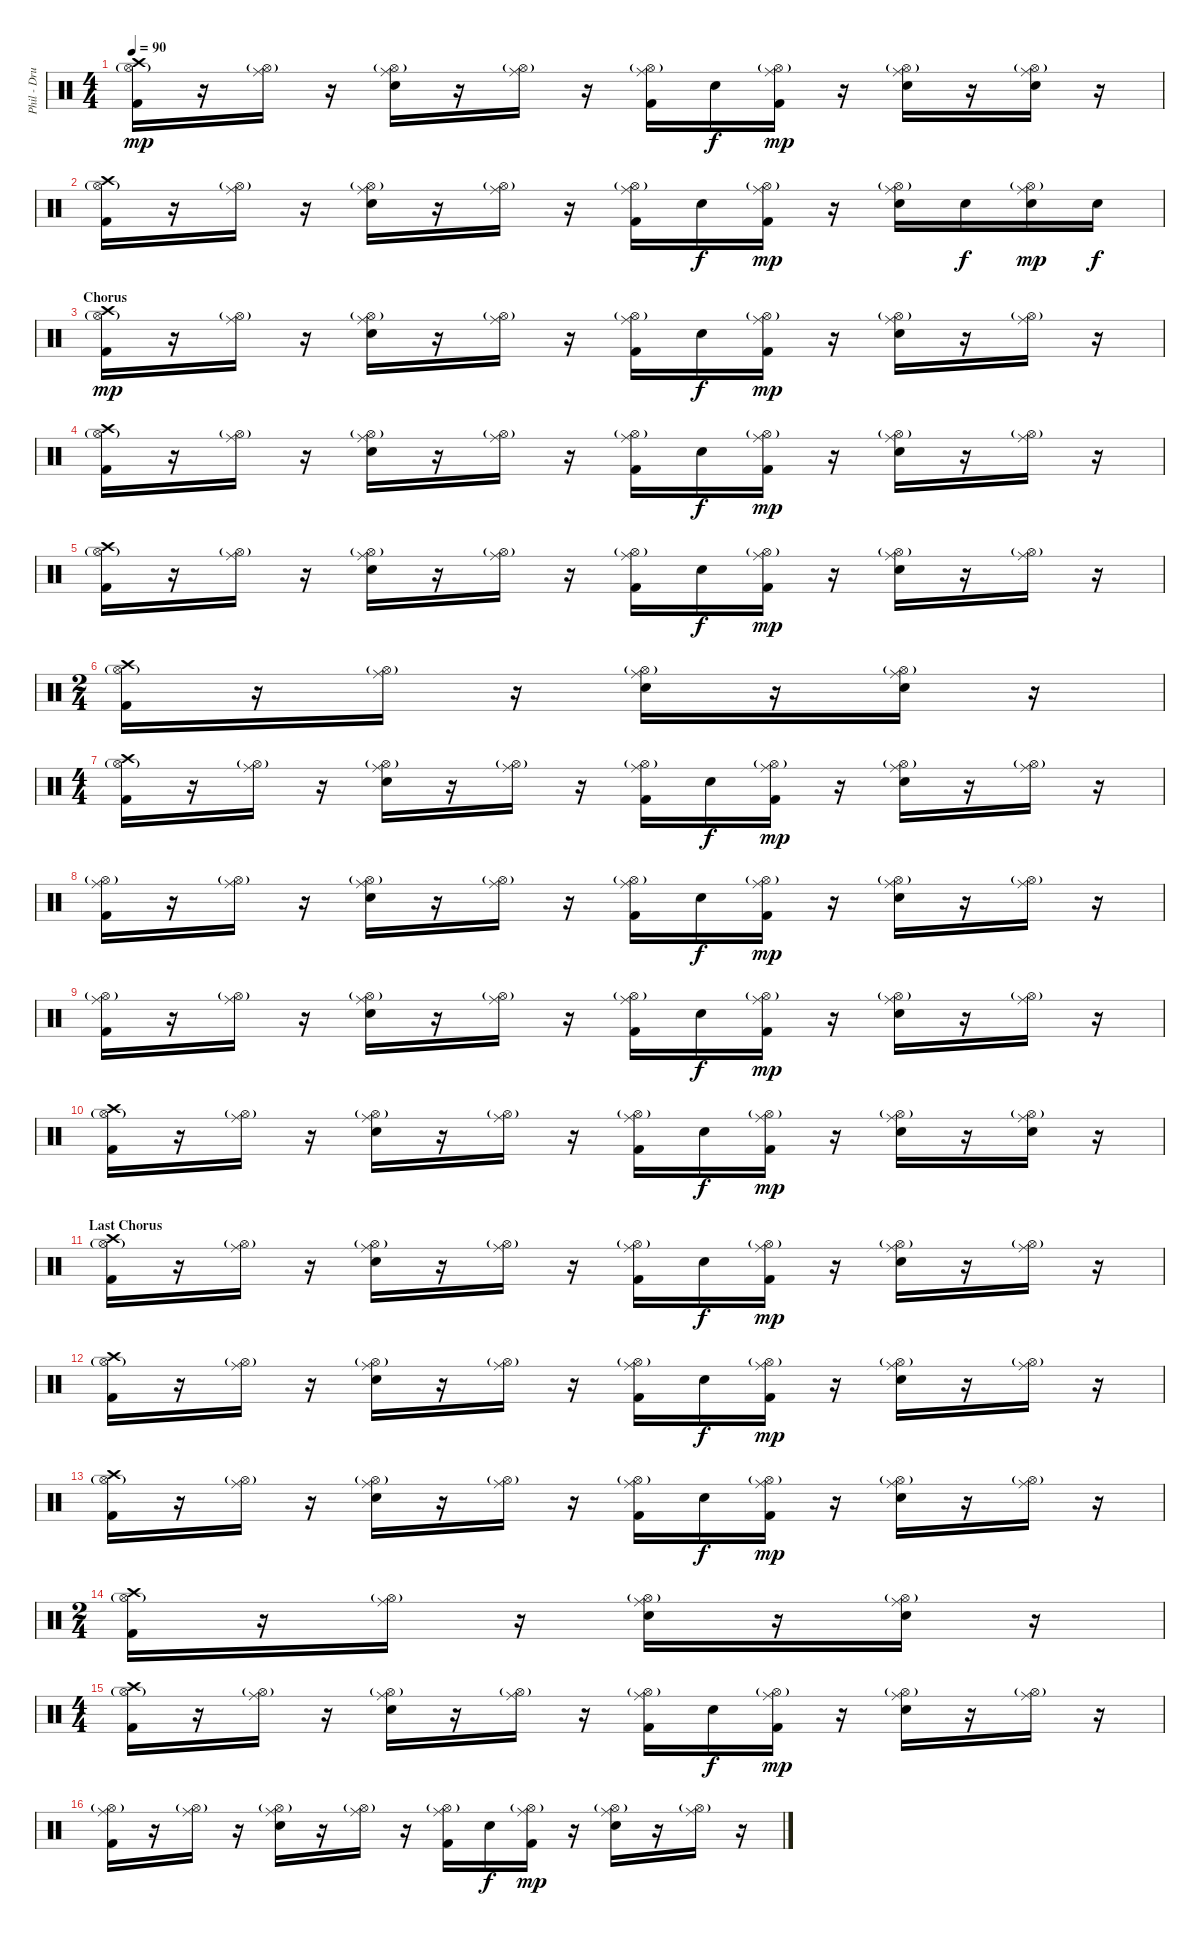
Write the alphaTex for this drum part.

\track ("Phil - Drums" "Phil - Dru") {instrument percussion}
\staff {score}
\articulation defaults
\ts (4 4)
\tempo 90
\clef neutral
\ks c
("Crash high (hit)" "Kick (hit) 2" "Hi-Hat (open)"{g}).16{dy mp} r.16 ("Ride (middle)" "Hi-Hat (open)"{g}).16 r.16 ("Ride (middle)" "Electric Snare (hit)" "Hi-Hat (open)"{g}).16 r.16 ("Ride (middle)" "Hi-Hat (open)"{g}).16 r.16 ("Ride (middle)" "Kick (hit) 2" "Hi-Hat (open)"{g}).16 "Electric Snare (hit)".16{dy f} ("Ride (middle)" "Kick (hit) 2" "Hi-Hat (open)"{g}).16{dy mp} r.16 ("Ride (middle)" "Electric Snare (hit)" "Hi-Hat (open)"{g}).16 r.16 ("Ride (middle)" "Electric Snare (hit)" "Hi-Hat (open)"{g}).16 r.16 |
("Crash high (hit)" "Kick (hit) 2" "Hi-Hat (open)"{g}).16 r.16 ("Ride (middle)" "Hi-Hat (open)"{g}).16 r.16 ("Ride (middle)" "Electric Snare (hit)" "Hi-Hat (open)"{g}).16 r.16 ("Ride (middle)" "Hi-Hat (open)"{g}).16 r.16 ("Ride (middle)" "Kick (hit) 2" "Hi-Hat (open)"{g}).16 "Electric Snare (hit)".16{dy f} ("Ride (middle)" "Kick (hit) 2" "Hi-Hat (open)"{g}).16{dy mp} r.16 ("Ride (middle)" "Electric Snare (hit)" "Hi-Hat (open)"{g}).16 "Electric Snare (hit)".16{dy f} ("Ride (middle)" "Electric Snare (hit)" "Hi-Hat (open)"{g}).16{dy mp} "Electric Snare (hit)".16{dy f} |
\section ("" "Chorus")
("Crash high (hit)" "Kick (hit) 2" "Hi-Hat (open)"{g}).16{dy mp} r.16 ("Ride (middle)" "Hi-Hat (open)"{g}).16 r.16 ("Ride (middle)" "Electric Snare (hit)" "Hi-Hat (open)"{g}).16 r.16 ("Ride (middle)" "Hi-Hat (open)"{g}).16 r.16 ("Ride (middle)" "Kick (hit) 2" "Hi-Hat (open)"{g}).16 "Electric Snare (hit)".16{dy f} ("Ride (middle)" "Kick (hit) 2" "Hi-Hat (open)"{g}).16{dy mp} r.16 ("Ride (middle)" "Electric Snare (hit)" "Hi-Hat (open)"{g}).16 r.16 ("Ride (middle)" "Hi-Hat (open)"{g}).16 r.16 |
("Crash high (hit)" "Kick (hit) 2" "Hi-Hat (open)"{g}).16 r.16 ("Ride (middle)" "Hi-Hat (open)"{g}).16 r.16 ("Ride (middle)" "Electric Snare (hit)" "Hi-Hat (open)"{g}).16 r.16 ("Ride (middle)" "Hi-Hat (open)"{g}).16 r.16 ("Ride (middle)" "Kick (hit) 2" "Hi-Hat (open)"{g}).16 "Electric Snare (hit)".16{dy f} ("Ride (middle)" "Kick (hit) 2" "Hi-Hat (open)"{g}).16{dy mp} r.16 ("Ride (middle)" "Electric Snare (hit)" "Hi-Hat (open)"{g}).16 r.16 ("Ride (middle)" "Hi-Hat (open)"{g}).16 r.16 |
("Crash high (hit)" "Kick (hit) 2" "Hi-Hat (open)"{g}).16 r.16 ("Ride (middle)" "Hi-Hat (open)"{g}).16 r.16 ("Ride (middle)" "Electric Snare (hit)" "Hi-Hat (open)"{g}).16 r.16 ("Ride (middle)" "Hi-Hat (open)"{g}).16 r.16 ("Ride (middle)" "Kick (hit) 2" "Hi-Hat (open)"{g}).16 "Electric Snare (hit)".16{dy f} ("Ride (middle)" "Kick (hit) 2" "Hi-Hat (open)"{g}).16{dy mp} r.16 ("Ride (middle)" "Electric Snare (hit)" "Hi-Hat (open)"{g}).16 r.16 ("Ride (middle)" "Hi-Hat (open)"{g}).16 r.16 |
\ts (2 4)
("Crash high (hit)" "Kick (hit) 2" "Hi-Hat (open)"{g}).16 r.16 ("Ride (middle)" "Hi-Hat (open)"{g}).16 r.16 ("Ride (middle)" "Electric Snare (hit)" "Hi-Hat (open)"{g}).16 r.16 ("Ride (middle)" "Electric Snare (hit)" "Hi-Hat (open)"{g}).16 r.16 |
\ts (4 4)
("Crash high (hit)" "Kick (hit) 2" "Hi-Hat (open)"{g}).16 r.16 ("Ride (middle)" "Hi-Hat (open)"{g}).16 r.16 ("Ride (middle)" "Electric Snare (hit)" "Hi-Hat (open)"{g}).16 r.16 ("Ride (middle)" "Hi-Hat (open)"{g}).16 r.16 ("Ride (middle)" "Kick (hit) 2" "Hi-Hat (open)"{g}).16 "Electric Snare (hit)".16{dy f} ("Ride (middle)" "Kick (hit) 2" "Hi-Hat (open)"{g}).16{dy mp} r.16 ("Ride (middle)" "Electric Snare (hit)" "Hi-Hat (open)"{g}).16 r.16 ("Ride (middle)" "Hi-Hat (open)"{g}).16 r.16 |
("Ride (middle)" "Kick (hit) 2" "Hi-Hat (open)"{g}).16 r.16 ("Ride (middle)" "Hi-Hat (open)"{g}).16 r.16 ("Ride (middle)" "Electric Snare (hit)" "Hi-Hat (open)"{g}).16 r.16 ("Ride (middle)" "Hi-Hat (open)"{g}).16 r.16 ("Ride (middle)" "Kick (hit) 2" "Hi-Hat (open)"{g}).16 "Electric Snare (hit)".16{dy f} ("Ride (middle)" "Kick (hit) 2" "Hi-Hat (open)"{g}).16{dy mp} r.16 ("Ride (middle)" "Electric Snare (hit)" "Hi-Hat (open)"{g}).16 r.16 ("Ride (middle)" "Hi-Hat (open)"{g}).16 r.16 |
("Ride (middle)" "Kick (hit) 2" "Hi-Hat (open)"{g}).16 r.16 ("Ride (middle)" "Hi-Hat (open)"{g}).16 r.16 ("Ride (middle)" "Electric Snare (hit)" "Hi-Hat (open)"{g}).16 r.16 ("Ride (middle)" "Hi-Hat (open)"{g}).16 r.16 ("Ride (middle)" "Kick (hit) 2" "Hi-Hat (open)"{g}).16 "Electric Snare (hit)".16{dy f} ("Ride (middle)" "Kick (hit) 2" "Hi-Hat (open)"{g}).16{dy mp} r.16 ("Ride (middle)" "Electric Snare (hit)" "Hi-Hat (open)"{g}).16 r.16 ("Ride (middle)" "Hi-Hat (open)"{g}).16 r.16 |
("Crash high (hit)" "Kick (hit) 2" "Hi-Hat (open)"{g}).16 r.16 ("Ride (middle)" "Hi-Hat (open)"{g}).16 r.16 ("Ride (middle)" "Electric Snare (hit)" "Hi-Hat (open)"{g}).16 r.16 ("Ride (middle)" "Hi-Hat (open)"{g}).16 r.16 ("Ride (middle)" "Kick (hit) 2" "Hi-Hat (open)"{g}).16 "Electric Snare (hit)".16{dy f} ("Ride (middle)" "Kick (hit) 2" "Hi-Hat (open)"{g}).16{dy mp} r.16 ("Ride (middle)" "Electric Snare (hit)" "Hi-Hat (open)"{g}).16 r.16 ("Ride (middle)" "Electric Snare (hit)" "Hi-Hat (open)"{g}).16 r.16 |
\section ("" "Last Chorus")
("Crash high (hit)" "Kick (hit) 2" "Hi-Hat (open)"{g}).16 r.16 ("Ride (middle)" "Hi-Hat (open)"{g}).16 r.16 ("Ride (middle)" "Electric Snare (hit)" "Hi-Hat (open)"{g}).16 r.16 ("Ride (middle)" "Hi-Hat (open)"{g}).16 r.16 ("Ride (middle)" "Kick (hit) 2" "Hi-Hat (open)"{g}).16 "Electric Snare (hit)".16{dy f} ("Ride (middle)" "Kick (hit) 2" "Hi-Hat (open)"{g}).16{dy mp} r.16 ("Ride (middle)" "Electric Snare (hit)" "Hi-Hat (open)"{g}).16 r.16 ("Ride (middle)" "Hi-Hat (open)"{g}).16 r.16 |
("Crash high (hit)" "Kick (hit) 2" "Hi-Hat (open)"{g}).16 r.16 ("Ride (middle)" "Hi-Hat (open)"{g}).16 r.16 ("Ride (middle)" "Electric Snare (hit)" "Hi-Hat (open)"{g}).16 r.16 ("Ride (middle)" "Hi-Hat (open)"{g}).16 r.16 ("Ride (middle)" "Kick (hit) 2" "Hi-Hat (open)"{g}).16 "Electric Snare (hit)".16{dy f} ("Ride (middle)" "Kick (hit) 2" "Hi-Hat (open)"{g}).16{dy mp} r.16 ("Ride (middle)" "Electric Snare (hit)" "Hi-Hat (open)"{g}).16 r.16 ("Ride (middle)" "Hi-Hat (open)"{g}).16 r.16 |
("Crash high (hit)" "Kick (hit) 2" "Hi-Hat (open)"{g}).16 r.16 ("Ride (middle)" "Hi-Hat (open)"{g}).16 r.16 ("Ride (middle)" "Electric Snare (hit)" "Hi-Hat (open)"{g}).16 r.16 ("Ride (middle)" "Hi-Hat (open)"{g}).16 r.16 ("Ride (middle)" "Kick (hit) 2" "Hi-Hat (open)"{g}).16 "Electric Snare (hit)".16{dy f} ("Ride (middle)" "Kick (hit) 2" "Hi-Hat (open)"{g}).16{dy mp} r.16 ("Ride (middle)" "Electric Snare (hit)" "Hi-Hat (open)"{g}).16 r.16 ("Ride (middle)" "Hi-Hat (open)"{g}).16 r.16 |
\ts (2 4)
("Crash high (hit)" "Kick (hit) 2" "Hi-Hat (open)"{g}).16 r.16 ("Ride (middle)" "Hi-Hat (open)"{g}).16 r.16 ("Ride (middle)" "Electric Snare (hit)" "Hi-Hat (open)"{g}).16 r.16 ("Ride (middle)" "Electric Snare (hit)" "Hi-Hat (open)"{g}).16 r.16 |
\ts (4 4)
("Crash high (hit)" "Kick (hit) 2" "Hi-Hat (open)"{g}).16 r.16 ("Ride (middle)" "Hi-Hat (open)"{g}).16 r.16 ("Ride (middle)" "Electric Snare (hit)" "Hi-Hat (open)"{g}).16 r.16 ("Ride (middle)" "Hi-Hat (open)"{g}).16 r.16 ("Ride (middle)" "Kick (hit) 2" "Hi-Hat (open)"{g}).16 "Electric Snare (hit)".16{dy f} ("Ride (middle)" "Kick (hit) 2" "Hi-Hat (open)"{g}).16{dy mp} r.16 ("Ride (middle)" "Electric Snare (hit)" "Hi-Hat (open)"{g}).16 r.16 ("Ride (middle)" "Hi-Hat (open)"{g}).16 r.16 |
("Ride (middle)" "Kick (hit) 2" "Hi-Hat (open)"{g}).16 r.16 ("Ride (middle)" "Hi-Hat (open)"{g}).16 r.16 ("Ride (middle)" "Electric Snare (hit)" "Hi-Hat (open)"{g}).16 r.16 ("Ride (middle)" "Hi-Hat (open)"{g}).16 r.16 ("Ride (middle)" "Kick (hit) 2" "Hi-Hat (open)"{g}).16 "Electric Snare (hit)".16{dy f} ("Ride (middle)" "Kick (hit) 2" "Hi-Hat (open)"{g}).16{dy mp} r.16 ("Ride (middle)" "Electric Snare (hit)" "Hi-Hat (open)"{g}).16 r.16 ("Ride (middle)" "Hi-Hat (open)"{g}).16 r.16
